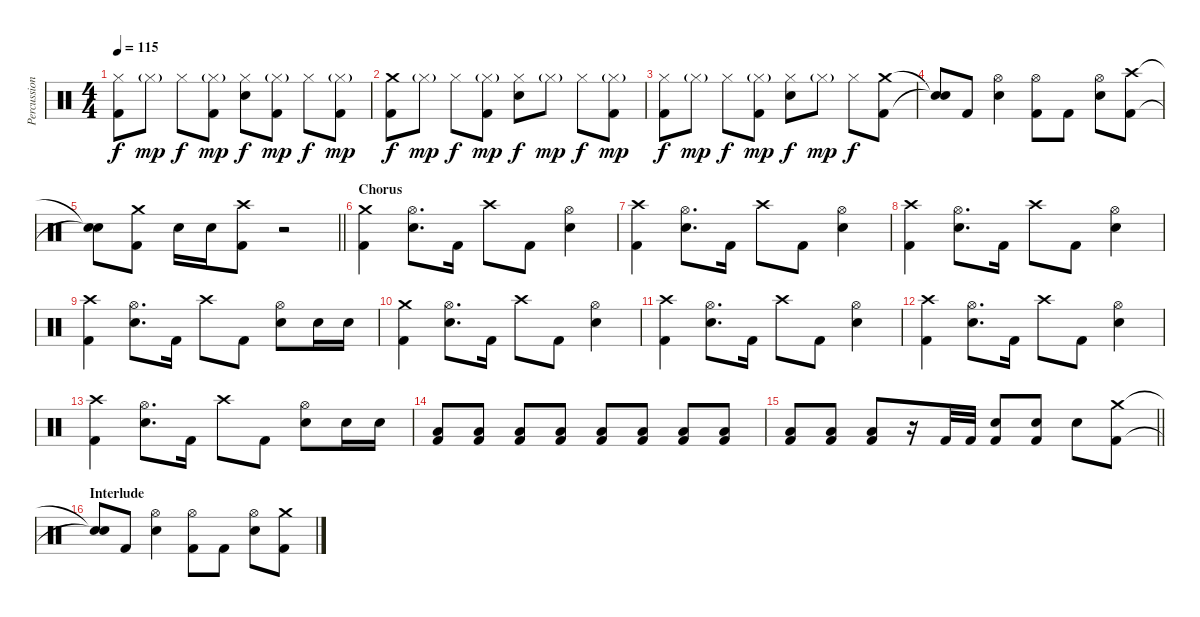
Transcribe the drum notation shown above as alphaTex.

\track ("Percussion" "Percussion") {instrument percussion}
\staff {score}
\articulation defaults
\ts (4 4)
\tempo 115
\clef neutral
\ks c
("Hi-Hat (closed)" "Kick (hit) 2").8{dy f} "Hi-Hat (closed)"{g}.8{dy mp} "Hi-Hat (closed)".8{dy f} ("Hi-Hat (closed)"{g} "Kick (hit) 2").8{dy mp} ("Hi-Hat (closed)" "Electric Snare (hit)").8{dy f} ("Hi-Hat (closed)"{g} "Kick (hit) 2").8{dy mp} "Hi-Hat (closed)".8{dy f} ("Hi-Hat (closed)"{g} "Kick (hit) 2").8{dy mp} |
("Crash medium (hit)" "Kick (hit) 2").8{dy f} "Hi-Hat (closed)"{g}.8{dy mp} "Hi-Hat (closed)".8{dy f} ("Hi-Hat (closed)"{g} "Kick (hit) 2").8{dy mp} ("Hi-Hat (closed)" "Electric Snare (hit)").8{dy f} "Hi-Hat (closed)"{g}.8{dy mp} "Hi-Hat (closed)".8{dy f} ("Hi-Hat (closed)"{g} "Kick (hit) 2").8{dy mp} |
("Hi-Hat (closed)" "Kick (hit) 2").8{dy f} "Hi-Hat (closed)"{g}.8{dy mp} "Hi-Hat (closed)".8{dy f} ("Hi-Hat (closed)"{g} "Kick (hit) 2").8{dy mp} ("Hi-Hat (closed)" "Electric Snare (hit)").8{dy f} "Hi-Hat (closed)"{g}.8{dy mp} "Hi-Hat (closed)".8{dy f} ("Crash medium (hit)" "Kick (hit) 2").8 |
("Snare (hit)"{t} "Snare (hit)"{t}).8 "Kick (hit) 2".8 ("Hi-Hat (open)" "Electric Snare (hit)").4 ("Hi-Hat (open)" "Kick (hit) 2").8 "Kick (hit) 2".8 ("Hi-Hat (open)" "Electric Snare (hit)").8 ("Crash high (hit)" "Kick (hit) 2").8 |
\barLineRight lightlight
("Snare (hit)"{t} "Snare (hit)"{t}).8 ("Crash medium (hit)" "Kick (hit) 2").8 "Electric Snare (hit)".16 "Electric Snare (hit)".16 ("Crash high (hit)" "Kick (hit) 2").8 r.2 |
\section ("" "Chorus")
("Crash medium (hit)" "Kick (hit) 2").4 ("Hi-Hat (open)" "Electric Snare (hit)").8{d} "Kick (hit) 2".16 "Crash high (hit)".8 "Kick (hit) 2".8 ("Hi-Hat (open)" "Electric Snare (hit)").4 |
("Crash high (hit)" "Kick (hit) 2").4 ("Hi-Hat (open)" "Electric Snare (hit)").8{d} "Kick (hit) 2".16 "Crash high (hit)".8 "Kick (hit) 2".8 ("Hi-Hat (open)" "Electric Snare (hit)").4 |
("Crash high (hit)" "Kick (hit) 2").4 ("Hi-Hat (open)" "Electric Snare (hit)").8{d} "Kick (hit) 2".16 "Crash high (hit)".8 "Kick (hit) 2".8 ("Hi-Hat (open)" "Electric Snare (hit)").4 |
("Crash high (hit)" "Kick (hit) 2").4 ("Hi-Hat (open)" "Electric Snare (hit)").8{d} "Kick (hit) 2".16 "Crash high (hit)".8 "Kick (hit) 2".8 ("Hi-Hat (open)" "Electric Snare (hit)").8 "Electric Snare (hit)".16 "Electric Snare (hit)".16 |
("Crash medium (hit)" "Kick (hit) 2").4 ("Hi-Hat (open)" "Electric Snare (hit)").8{d} "Kick (hit) 2".16 "Crash high (hit)".8 "Kick (hit) 2".8 ("Hi-Hat (open)" "Electric Snare (hit)").4 |
("Crash high (hit)" "Kick (hit) 2").4 ("Hi-Hat (open)" "Electric Snare (hit)").8{d} "Kick (hit) 2".16 "Crash high (hit)".8 "Kick (hit) 2".8 ("Hi-Hat (open)" "Electric Snare (hit)").4 |
("Crash high (hit)" "Kick (hit) 2").4 ("Hi-Hat (open)" "Electric Snare (hit)").8{d} "Kick (hit) 2".16 "Crash high (hit)".8 "Kick (hit) 2".8 ("Hi-Hat (open)" "Electric Snare (hit)").4 |
("Crash high (hit)" "Kick (hit) 2").4 ("Hi-Hat (open)" "Electric Snare (hit)").8{d} "Kick (hit) 2".16 "Crash high (hit)".8 "Kick (hit) 2".8 ("Hi-Hat (open)" "Electric Snare (hit)").8 "Electric Snare (hit)".16 "Electric Snare (hit)".16 |
("Low Floor Tom (hit)" "Kick (hit) 2").8 ("Low Floor Tom (hit)" "Kick (hit) 2").8 ("Low Floor Tom (hit)" "Kick (hit) 2").8 ("Low Floor Tom (hit)" "Kick (hit) 2").8 ("Low Floor Tom (hit)" "Kick (hit) 2").8 ("Low Floor Tom (hit)" "Kick (hit) 2").8 ("Low Floor Tom (hit)" "Kick (hit) 2").8 ("Low Floor Tom (hit)" "Kick (hit) 2").8 |
\barLineRight lightlight
("Low Floor Tom (hit)" "Kick (hit) 2").8 ("Low Floor Tom (hit)" "Kick (hit) 2").8 ("Low Floor Tom (hit)" "Kick (hit) 2").8 r.16 "Kick (hit) 2".32 "Kick (hit) 2".32 ("Electric Snare (hit)" "Kick (hit) 2").8 ("Electric Snare (hit)" "Kick (hit) 2").8 "Electric Snare (hit)".8 ("Crash medium (hit)" "Kick (hit) 2").8 |
\section ("" "Interlude")
("Snare (hit)"{t} "Snare (hit)"{t}).8 "Kick (hit) 2".8 ("Hi-Hat (open)" "Electric Snare (hit)").4 ("Hi-Hat (open)" "Kick (hit) 2").8 "Kick (hit) 2".8 ("Hi-Hat (open)" "Electric Snare (hit)").8 ("Crash medium (hit)" "Kick (hit) 2").8
